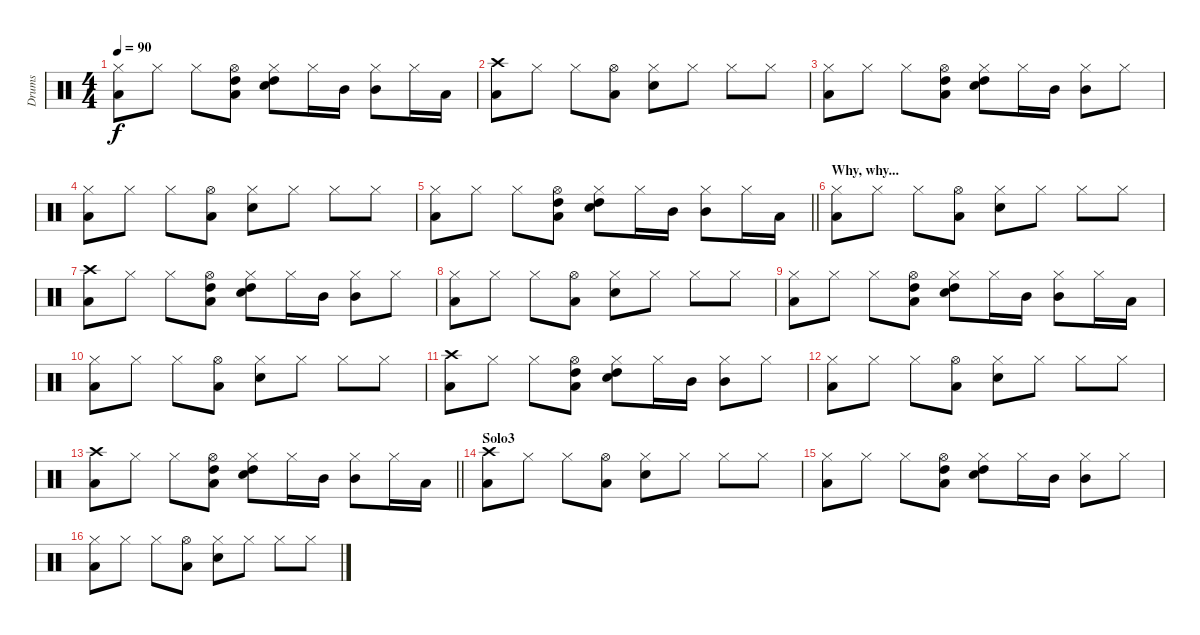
\track ("Drums" "Drums") {instrument percussion}
\staff {score}
\articulation defaults
\ts (4 4)
\tempo 90
\clef neutral
\ks c
("Hi-Hat (closed)" "Low Tom (hit)").8{dy f} "Hi-Hat (closed)".8 "Hi-Hat (closed)".8 ("Hi-Hat (open)" "High Tom (hit)" "Low Tom (hit)").8 ("Hi-Hat (closed)" "High Tom (hit)" "Snare (hit) 2").8 "Hi-Hat (closed)".16 "Mid Tom (hit)".16 ("Hi-Hat (closed)" "Mid Tom (hit)").8 "Hi-Hat (closed)".16 "Low Tom (hit)".16 |
("Crash high (hit)" "Low Tom (hit)").8 "Hi-Hat (closed)".8 "Hi-Hat (closed)".8 ("Hi-Hat (open)" "Low Tom (hit)").8 ("Hi-Hat (closed)" "Snare (hit) 2").8 "Hi-Hat (closed)".8 "Hi-Hat (closed)".8 "Hi-Hat (closed)".8 |
("Hi-Hat (closed)" "Low Tom (hit)").8 "Hi-Hat (closed)".8 "Hi-Hat (closed)".8 ("Hi-Hat (open)" "High Tom (hit)" "Low Tom (hit)").8 ("Hi-Hat (closed)" "High Tom (hit)" "Snare (hit) 2").8 "Hi-Hat (closed)".16 "Mid Tom (hit)".16 ("Hi-Hat (closed)" "Mid Tom (hit)").8 "Hi-Hat (closed)".8 |
("Hi-Hat (closed)" "Low Tom (hit)").8 "Hi-Hat (closed)".8 "Hi-Hat (closed)".8 ("Hi-Hat (open)" "Low Tom (hit)").8 ("Hi-Hat (closed)" "Snare (hit) 2").8 "Hi-Hat (closed)".8 "Hi-Hat (closed)".8 "Hi-Hat (closed)".8 |
\barLineRight lightlight
("Hi-Hat (closed)" "Low Tom (hit)").8 "Hi-Hat (closed)".8 "Hi-Hat (closed)".8 ("Hi-Hat (open)" "High Tom (hit)" "Low Tom (hit)").8 ("Hi-Hat (closed)" "High Tom (hit)" "Snare (hit) 2").8 "Hi-Hat (closed)".16 "Mid Tom (hit)".16 ("Hi-Hat (closed)" "Mid Tom (hit)").8 "Hi-Hat (closed)".16 "Low Tom (hit)".16 |
\section ("" "Why, why...")
("Hi-Hat (closed)" "Low Tom (hit)").8 "Hi-Hat (closed)".8 "Hi-Hat (closed)".8 ("Hi-Hat (open)" "Low Tom (hit)").8 ("Hi-Hat (closed)" "Snare (hit) 2").8 "Hi-Hat (closed)".8 "Hi-Hat (closed)".8 "Hi-Hat (closed)".8 |
("Crash high (hit)" "Low Tom (hit)").8 "Hi-Hat (closed)".8 "Hi-Hat (closed)".8 ("Hi-Hat (open)" "High Tom (hit)" "Low Tom (hit)").8 ("Hi-Hat (closed)" "High Tom (hit)" "Snare (hit) 2").8 "Hi-Hat (closed)".16 "Mid Tom (hit)".16 ("Hi-Hat (closed)" "Mid Tom (hit)").8 "Hi-Hat (closed)".8 |
("Hi-Hat (closed)" "Low Tom (hit)").8 "Hi-Hat (closed)".8 "Hi-Hat (closed)".8 ("Hi-Hat (open)" "Low Tom (hit)").8 ("Hi-Hat (closed)" "Snare (hit) 2").8 "Hi-Hat (closed)".8 "Hi-Hat (closed)".8 "Hi-Hat (closed)".8 |
("Hi-Hat (closed)" "Low Tom (hit)").8 "Hi-Hat (closed)".8 "Hi-Hat (closed)".8 ("Hi-Hat (open)" "High Tom (hit)" "Low Tom (hit)").8 ("Hi-Hat (closed)" "High Tom (hit)" "Snare (hit) 2").8 "Hi-Hat (closed)".16 "Mid Tom (hit)".16 ("Hi-Hat (closed)" "Mid Tom (hit)").8 "Hi-Hat (closed)".16 "Low Tom (hit)".16 |
("Hi-Hat (closed)" "Low Tom (hit)").8 "Hi-Hat (closed)".8 "Hi-Hat (closed)".8 ("Hi-Hat (open)" "Low Tom (hit)").8 ("Hi-Hat (closed)" "Snare (hit) 2").8 "Hi-Hat (closed)".8 "Hi-Hat (closed)".8 "Hi-Hat (closed)".8 |
("Crash high (hit)" "Low Tom (hit)").8 "Hi-Hat (closed)".8 "Hi-Hat (closed)".8 ("Hi-Hat (open)" "High Tom (hit)" "Low Tom (hit)").8 ("Hi-Hat (closed)" "High Tom (hit)" "Snare (hit) 2").8 "Hi-Hat (closed)".16 "Mid Tom (hit)".16 ("Hi-Hat (closed)" "Mid Tom (hit)").8 "Hi-Hat (closed)".8 |
("Hi-Hat (closed)" "Low Tom (hit)").8 "Hi-Hat (closed)".8 "Hi-Hat (closed)".8 ("Hi-Hat (open)" "Low Tom (hit)").8 ("Hi-Hat (closed)" "Snare (hit) 2").8 "Hi-Hat (closed)".8 "Hi-Hat (closed)".8 "Hi-Hat (closed)".8 |
\barLineRight lightlight
("Crash high (hit)" "Low Tom (hit)").8 "Hi-Hat (closed)".8 "Hi-Hat (closed)".8 ("Hi-Hat (open)" "High Tom (hit)" "Low Tom (hit)").8 ("Hi-Hat (closed)" "High Tom (hit)" "Snare (hit) 2").8 "Hi-Hat (closed)".16 "Mid Tom (hit)".16 ("Hi-Hat (closed)" "Mid Tom (hit)").8 "Hi-Hat (closed)".16 "Low Tom (hit)".16 |
\section ("" "Solo3")
("Crash high (hit)" "Low Tom (hit)").8 "Hi-Hat (closed)".8 "Hi-Hat (closed)".8 ("Hi-Hat (open)" "Low Tom (hit)").8 ("Hi-Hat (closed)" "Snare (hit) 2").8 "Hi-Hat (closed)".8 "Hi-Hat (closed)".8 "Hi-Hat (closed)".8 |
("Hi-Hat (closed)" "Low Tom (hit)").8 "Hi-Hat (closed)".8 "Hi-Hat (closed)".8 ("Hi-Hat (open)" "High Tom (hit)" "Low Tom (hit)").8 ("Hi-Hat (closed)" "High Tom (hit)" "Snare (hit) 2").8 "Hi-Hat (closed)".16 "Mid Tom (hit)".16 ("Hi-Hat (closed)" "Mid Tom (hit)").8 "Hi-Hat (closed)".8 |
("Hi-Hat (closed)" "Low Tom (hit)").8 "Hi-Hat (closed)".8 "Hi-Hat (closed)".8 ("Hi-Hat (open)" "Low Tom (hit)").8 ("Hi-Hat (closed)" "Snare (hit) 2").8 "Hi-Hat (closed)".8 "Hi-Hat (closed)".8 "Hi-Hat (closed)".8
